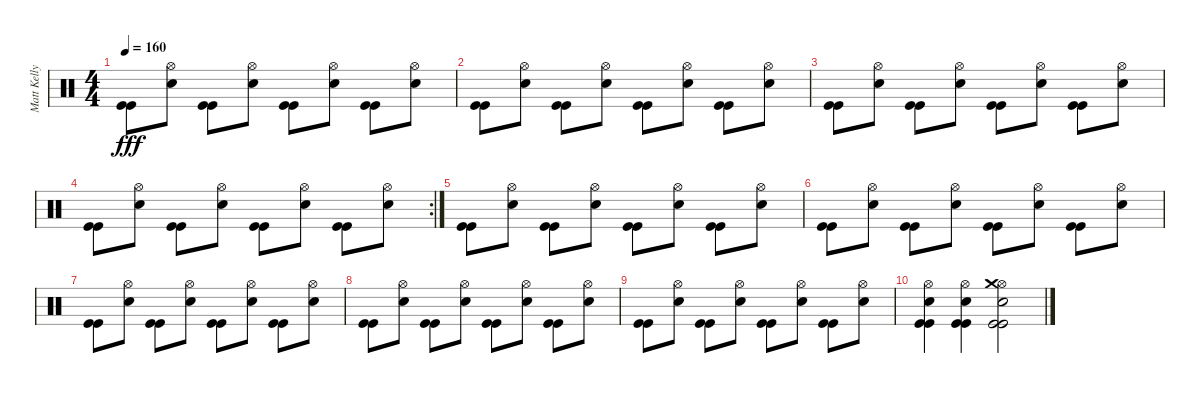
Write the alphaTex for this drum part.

\track ("Matt Kelly" "Matt Kelly") {instrument percussion}
\staff {score}
\articulation defaults
\ts (4 4)
\tempo 160
\clef neutral
\ks c
("Kick (hit)" "Kick (hit)").8{dy fff} ("Snare (hit) 2" "Hi-Hat (open)").8 ("Kick (hit)" "Kick (hit)").8 ("Snare (hit) 2" "Hi-Hat (open)").8 ("Kick (hit)" "Kick (hit)").8 ("Snare (hit) 2" "Hi-Hat (open)").8 ("Kick (hit)" "Kick (hit)").8 ("Snare (hit) 2" "Hi-Hat (open)").8 |
("Kick (hit)" "Kick (hit)").8 ("Snare (hit) 2" "Hi-Hat (open)").8 ("Kick (hit)" "Kick (hit)").8 ("Snare (hit) 2" "Hi-Hat (open)").8 ("Kick (hit)" "Kick (hit)").8 ("Snare (hit) 2" "Hi-Hat (open)").8 ("Kick (hit)" "Kick (hit)").8 ("Snare (hit) 2" "Hi-Hat (open)").8 |
("Kick (hit)" "Kick (hit)").8 ("Snare (hit) 2" "Hi-Hat (open)").8 ("Kick (hit)" "Kick (hit)").8 ("Snare (hit) 2" "Hi-Hat (open)").8 ("Kick (hit)" "Kick (hit)").8 ("Snare (hit) 2" "Hi-Hat (open)").8 ("Kick (hit)" "Kick (hit)").8 ("Snare (hit) 2" "Hi-Hat (open)").8 |
\rc 2
("Kick (hit)" "Kick (hit)").8 ("Snare (hit) 2" "Hi-Hat (open)").8 ("Kick (hit)" "Kick (hit)").8 ("Snare (hit) 2" "Hi-Hat (open)").8 ("Kick (hit)" "Kick (hit)").8 ("Snare (hit) 2" "Hi-Hat (open)").8 ("Kick (hit)" "Kick (hit)").8 ("Snare (hit) 2" "Hi-Hat (open)").8 |
("Kick (hit)" "Kick (hit)").8 ("Snare (hit) 2" "Hi-Hat (open)").8 ("Kick (hit)" "Kick (hit)").8 ("Snare (hit) 2" "Hi-Hat (open)").8 ("Kick (hit)" "Kick (hit)").8 ("Snare (hit) 2" "Hi-Hat (open)").8 ("Kick (hit)" "Kick (hit)").8 ("Snare (hit) 2" "Hi-Hat (open)").8 |
("Kick (hit)" "Kick (hit)").8 ("Snare (hit) 2" "Hi-Hat (open)").8 ("Kick (hit)" "Kick (hit)").8 ("Snare (hit) 2" "Hi-Hat (open)").8 ("Kick (hit)" "Kick (hit)").8 ("Snare (hit) 2" "Hi-Hat (open)").8 ("Kick (hit)" "Kick (hit)").8 ("Snare (hit) 2" "Hi-Hat (open)").8 |
("Kick (hit)" "Kick (hit)").8 ("Snare (hit) 2" "Hi-Hat (open)").8 ("Kick (hit)" "Kick (hit)").8 ("Snare (hit) 2" "Hi-Hat (open)").8 ("Kick (hit)" "Kick (hit)").8 ("Snare (hit) 2" "Hi-Hat (open)").8 ("Kick (hit)" "Kick (hit)").8 ("Snare (hit) 2" "Hi-Hat (open)").8 |
("Kick (hit)" "Kick (hit)").8 ("Snare (hit) 2" "Hi-Hat (open)").8 ("Kick (hit)" "Kick (hit)").8 ("Snare (hit) 2" "Hi-Hat (open)").8 ("Kick (hit)" "Kick (hit)").8 ("Snare (hit) 2" "Hi-Hat (open)").8 ("Kick (hit)" "Kick (hit)").8 ("Snare (hit) 2" "Hi-Hat (open)").8 |
("Kick (hit)" "Kick (hit)").8 ("Snare (hit) 2" "Hi-Hat (open)").8 ("Kick (hit)" "Kick (hit)").8 ("Snare (hit) 2" "Hi-Hat (open)").8 ("Kick (hit)" "Kick (hit)").8 ("Snare (hit) 2" "Hi-Hat (open)").8 ("Kick (hit)" "Kick (hit)").8 ("Snare (hit) 2" "Hi-Hat (open)").8 |
("Snare (hit) 2" "Hi-Hat (open)" "Kick (hit)" "Kick (hit)").4 ("Snare (hit) 2" "Hi-Hat (open)" "Kick (hit)" "Kick (hit)").4 ("Snare (hit) 2" "Hi-Hat (open)" "Kick (hit)" "Kick (hit)" "Crash medium (hit)").2
